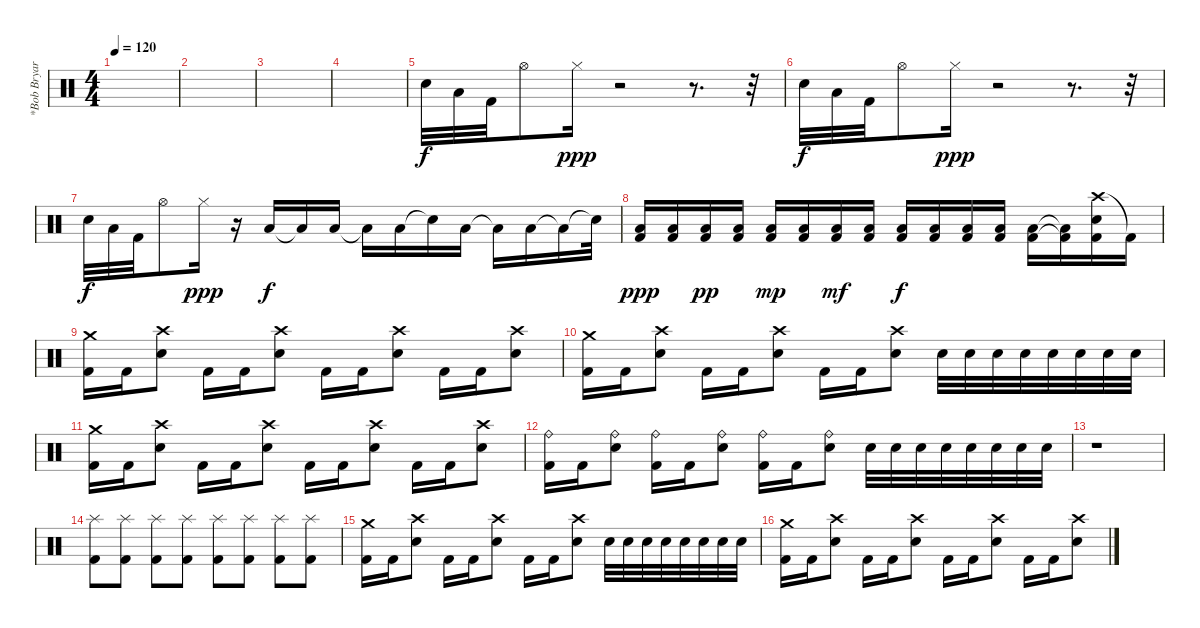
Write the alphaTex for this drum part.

\track ("*Bob Bryar" "*Bob Bryar") {instrument percussion}
\staff {score}
\articulation defaults
\ts (4 4)
\tempo 120
\clef neutral
\ks c
|
|
|
|
"Electric Snare (hit)".32 "Low Tom (hit)".32 "Kick (hit) 2".32 "Hi-Hat (open)".8 "Hi-Hat (closed)".16{dy ppp} r.2 r.8{d} r.32 |
"Electric Snare (hit)".32{dy f} "Low Tom (hit)".32 "Kick (hit) 2".32 "Hi-Hat (open)".8 "Hi-Hat (closed)".16{dy ppp} r.2 r.8{d} r.32 |
"Electric Snare (hit)".32{dy f} "Low Tom (hit)".32 "Kick (hit) 2".32 "Hi-Hat (open)".8 "Hi-Hat (closed)".16{dy ppp} r.16 "Low Tom (hit)".16{dy f} "Low Tom (hit)"{t}.16 "Low Tom (hit)".16 "Low Tom (hit)"{t}.16 "Low Tom (hit)".16 "Snare (hit)"{t}.16 "Low Tom (hit)".16 "Low Tom (hit)"{t}.16 "Low Tom (hit)".16 "Low Tom (hit)"{t}.16 "Snare (hit)"{t}.32 |
("Low Tom (hit)" "Kick (hit) 2").16{dy ppp} ("Low Tom (hit)" "Kick (hit) 2").16 ("Low Tom (hit)" "Kick (hit) 2").16{dy pp} ("Low Tom (hit)" "Kick (hit) 2").16 ("Low Tom (hit)" "Kick (hit) 2").16{dy mp} ("Low Tom (hit)" "Kick (hit) 2").16 ("Low Tom (hit)" "Kick (hit) 2").16{dy mf} ("Low Tom (hit)" "Kick (hit) 2").16 ("Low Tom (hit)" "Kick (hit) 2").16{dy f} ("Low Tom (hit)" "Kick (hit) 2").16 ("Low Tom (hit)" "Kick (hit) 2").16 ("Low Tom (hit)" "Kick (hit) 2").16 ("Low Tom (hit)" "Kick (hit) 2").16 ("Low Tom (hit)"{t} "Kick (hit) 2"{t}).16 ("Crash high (hit)" "Electric Snare (hit)" "Kick (hit) 2").16 "Kick (hit) 2"{t}.16 |
("Crash medium (hit)" "Kick (hit) 2").16 "Kick (hit) 2".16 ("Crash high (hit)" "Electric Snare (hit)").8 "Kick (hit) 2".16 "Kick (hit) 2".16 ("Crash high (hit)" "Electric Snare (hit)").8 "Kick (hit) 2".16 "Kick (hit) 2".16 ("Crash high (hit)" "Electric Snare (hit)").8 "Kick (hit) 2".16 "Kick (hit) 2".16 ("Crash high (hit)" "Electric Snare (hit)").8 |
("Crash medium (hit)" "Kick (hit) 2").16 "Kick (hit) 2".16 ("Crash high (hit)" "Electric Snare (hit)").8 "Kick (hit) 2".16 "Kick (hit) 2".16 ("Crash high (hit)" "Electric Snare (hit)").8 "Kick (hit) 2".16 "Kick (hit) 2".16 ("Crash high (hit)" "Electric Snare (hit)").8 "Electric Snare (hit)".32 "Electric Snare (hit)".32 "Electric Snare (hit)".32 "Electric Snare (hit)".32 "Electric Snare (hit)".32 "Electric Snare (hit)".32 "Electric Snare (hit)".32 "Electric Snare (hit)".32 |
("Crash medium (hit)" "Kick (hit) 2").16 "Kick (hit) 2".16 ("Crash high (hit)" "Electric Snare (hit)").8 "Kick (hit) 2".16 "Kick (hit) 2".16 ("Crash high (hit)" "Electric Snare (hit)").8 "Kick (hit) 2".16 "Kick (hit) 2".16 ("Crash high (hit)" "Electric Snare (hit)").8 "Kick (hit) 2".16 "Kick (hit) 2".16 ("Crash high (hit)" "Electric Snare (hit)").8 |
("Ride (bell)" "Kick (hit) 2").16 "Kick (hit) 2".16 ("Ride (bell)" "Electric Snare (hit)").8 ("Ride (bell)" "Kick (hit) 2").16 "Kick (hit) 2".16 ("Ride (bell)" "Electric Snare (hit)").8 ("Ride (bell)" "Kick (hit) 2").16 "Kick (hit) 2".16 ("Ride (bell)" "Electric Snare (hit)").8 "Electric Snare (hit)".32 "Electric Snare (hit)".32 "Electric Snare (hit)".32 "Electric Snare (hit)".32 "Electric Snare (hit)".32 "Electric Snare (hit)".32 "Electric Snare (hit)".32 "Electric Snare (hit)".32 |
r.1 |
("Splash (hit)" "Kick (hit) 2").8 ("Splash (hit)" "Kick (hit) 2").8 ("Splash (hit)" "Kick (hit) 2").8 ("Splash (hit)" "Kick (hit) 2").8 ("Splash (hit)" "Kick (hit) 2").8 ("Splash (hit)" "Kick (hit) 2").8 ("Splash (hit)" "Kick (hit) 2").8 ("Splash (hit)" "Kick (hit) 2").8 |
("Crash medium (hit)" "Kick (hit) 2").16 "Kick (hit) 2".16 ("Crash high (hit)" "Electric Snare (hit)").8 "Kick (hit) 2".16 "Kick (hit) 2".16 ("Crash high (hit)" "Electric Snare (hit)").8 "Kick (hit) 2".16 "Kick (hit) 2".16 ("Crash high (hit)" "Electric Snare (hit)").8 "Electric Snare (hit)".32 "Electric Snare (hit)".32 "Electric Snare (hit)".32 "Electric Snare (hit)".32 "Electric Snare (hit)".32 "Electric Snare (hit)".32 "Electric Snare (hit)".32 "Electric Snare (hit)".32 |
("Crash medium (hit)" "Kick (hit) 2").16 "Kick (hit) 2".16 ("Crash high (hit)" "Electric Snare (hit)").8 "Kick (hit) 2".16 "Kick (hit) 2".16 ("Crash high (hit)" "Electric Snare (hit)").8 "Kick (hit) 2".16 "Kick (hit) 2".16 ("Crash high (hit)" "Electric Snare (hit)").8 "Kick (hit) 2".16 "Kick (hit) 2".16 ("Crash high (hit)" "Electric Snare (hit)").8
